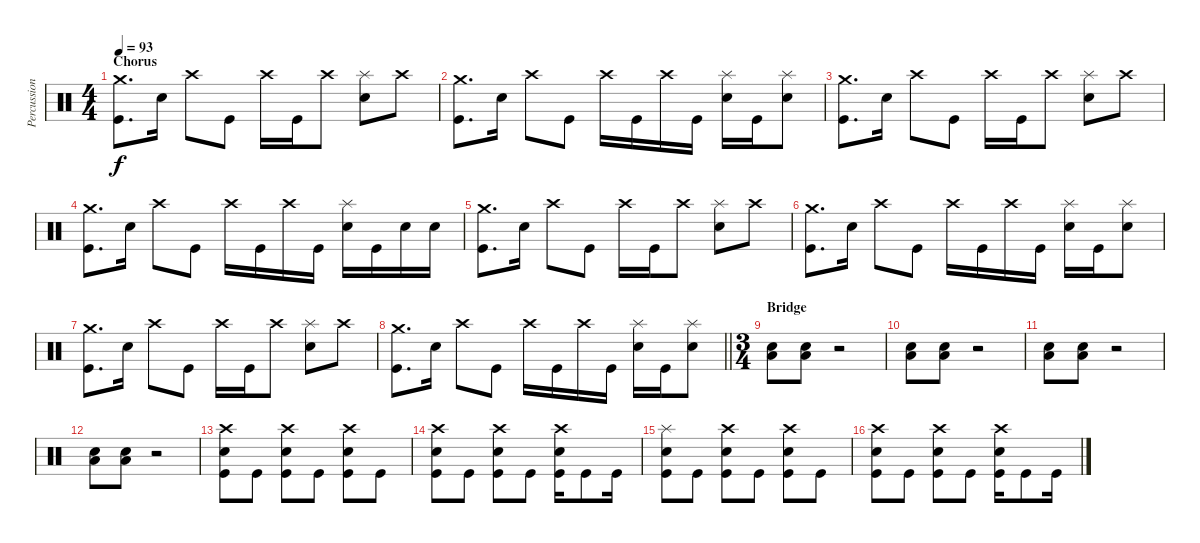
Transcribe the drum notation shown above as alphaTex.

\track ("Percussion" "Percussion") {instrument percussion}
\staff {score}
\articulation defaults
\ts (4 4)
\section ("" "Chorus")
\tempo 93
\clef neutral
\ks c
("Crash medium (hit)" "Kick (hit)").8{d dy f} "Electric Snare (hit)".16 "Crash high (hit)".8 "Kick (hit)".8 "Crash high (hit)".16 "Kick (hit)".16 "Crash high (hit)".8 ("Splash (hit)" "Electric Snare (hit)").8 "Crash high (hit)".8 |
("Crash medium (hit)" "Kick (hit)").8{d} "Electric Snare (hit)".16 "Crash high (hit)".8 "Kick (hit)".8 "Crash high (hit)".16 "Kick (hit)".16 "Crash high (hit)".16 "Kick (hit)".16 ("Splash (hit)" "Electric Snare (hit)").16 "Kick (hit)".16 ("Splash (hit)" "Electric Snare (hit)").8 |
("Crash medium (hit)" "Kick (hit)").8{d} "Electric Snare (hit)".16 "Crash high (hit)".8 "Kick (hit)".8 "Crash high (hit)".16 "Kick (hit)".16 "Crash high (hit)".8 ("Splash (hit)" "Electric Snare (hit)").8 "Crash high (hit)".8 |
("Crash medium (hit)" "Kick (hit)").8{d} "Electric Snare (hit)".16 "Crash high (hit)".8 "Kick (hit)".8 "Crash high (hit)".16 "Kick (hit)".16 "Crash high (hit)".16 "Kick (hit)".16 ("Splash (hit)" "Electric Snare (hit)").16 "Kick (hit)".16 "Electric Snare (hit)".16 "Electric Snare (hit)".16 |
("Crash medium (hit)" "Kick (hit)").8{d} "Electric Snare (hit)".16 "Crash high (hit)".8 "Kick (hit)".8 "Crash high (hit)".16 "Kick (hit)".16 "Crash high (hit)".8 ("Splash (hit)" "Electric Snare (hit)").8 "Crash high (hit)".8 |
("Crash medium (hit)" "Kick (hit)").8{d} "Electric Snare (hit)".16 "Crash high (hit)".8 "Kick (hit)".8 "Crash high (hit)".16 "Kick (hit)".16 "Crash high (hit)".16 "Kick (hit)".16 ("Splash (hit)" "Electric Snare (hit)").16 "Kick (hit)".16 ("Splash (hit)" "Electric Snare (hit)").8 |
("Crash medium (hit)" "Kick (hit)").8{d} "Electric Snare (hit)".16 "Crash high (hit)".8 "Kick (hit)".8 "Crash high (hit)".16 "Kick (hit)".16 "Crash high (hit)".8 ("Splash (hit)" "Electric Snare (hit)").8 "Crash high (hit)".8 |
\barLineRight lightlight
("Crash medium (hit)" "Kick (hit)").8{d} "Electric Snare (hit)".16 "Crash high (hit)".8 "Kick (hit)".8 "Crash high (hit)".16 "Kick (hit)".16 "Crash high (hit)".16 "Kick (hit)".16 ("Splash (hit)" "Electric Snare (hit)").16 "Kick (hit)".16 ("Splash (hit)" "Electric Snare (hit)").8 |
\ts (3 4)
\section ("" "Bridge")
("Electric Snare (hit)" "Low Floor Tom (hit)").8 ("Electric Snare (hit)" "Low Floor Tom (hit)").8 r.2 |
("Electric Snare (hit)" "Low Floor Tom (hit)").8 ("Electric Snare (hit)" "Low Floor Tom (hit)").8 r.2 |
("Electric Snare (hit)" "Low Floor Tom (hit)").8 ("Electric Snare (hit)" "Low Floor Tom (hit)").8 r.2 |
("Electric Snare (hit)" "Low Floor Tom (hit)").8 ("Electric Snare (hit)" "Low Floor Tom (hit)").8 r.2 |
("Crash high (hit)" "Electric Snare (hit)" "Kick (hit)").8 "Kick (hit)".8 ("Crash high (hit)" "Electric Snare (hit)" "Kick (hit)").8 "Kick (hit)".8 ("Crash high (hit)" "Electric Snare (hit)" "Kick (hit)").8 "Kick (hit)".8 |
("Crash high (hit)" "Electric Snare (hit)" "Kick (hit)").8 "Kick (hit)".8 ("Crash high (hit)" "Electric Snare (hit)" "Kick (hit)").8 "Kick (hit)".8 ("Crash high (hit)" "Electric Snare (hit)" "Kick (hit)").16 "Kick (hit)".8 "Kick (hit)".16 |
("Splash (hit)" "Electric Snare (hit)" "Kick (hit)").8 "Kick (hit)".8 ("Crash high (hit)" "Electric Snare (hit)" "Kick (hit)").8 "Kick (hit)".8 ("Crash high (hit)" "Electric Snare (hit)" "Kick (hit)").8 "Kick (hit)".8 |
("Crash high (hit)" "Electric Snare (hit)" "Kick (hit)").8 "Kick (hit)".8 ("Crash high (hit)" "Electric Snare (hit)" "Kick (hit)").8 "Kick (hit)".8 ("Crash high (hit)" "Electric Snare (hit)" "Kick (hit)").16 "Kick (hit)".8 "Kick (hit)".16
